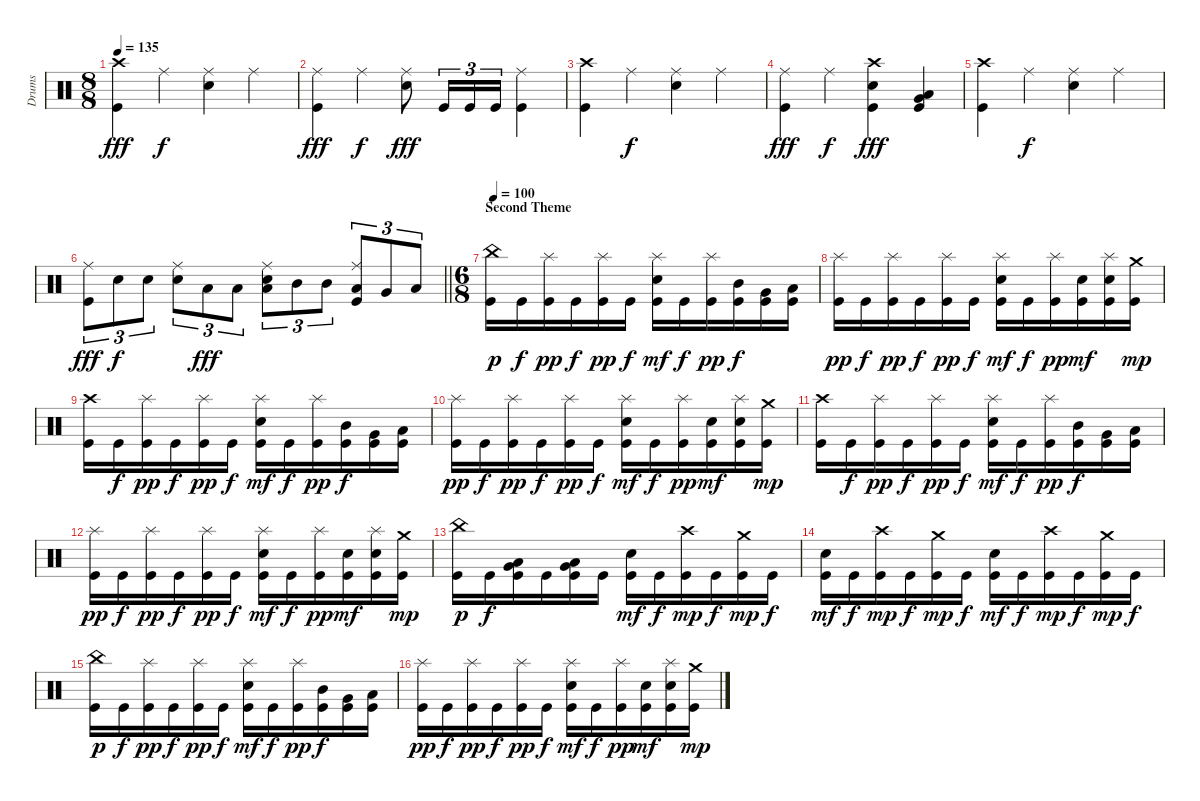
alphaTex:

\track ("Drums" "Drums") {instrument percussion}
\staff
\articulation defaults
\ts (8 8)
\tempo 135
\clef neutral
\ks c
("Crash high (hit)" "Kick (hit)").4{dy fff} "Ride (middle)".4{dy f} ("Ride (middle)" "Snare (hit) 2").4 "Ride (middle)".4 |
("Ride (middle)" "Kick (hit)").4{dy fff} "Ride (middle)".4{dy f} ("Ride (middle)" "Snare (hit) 2").8{dy fff} "Kick (hit)".16{tu (3 2)} "Kick (hit)".16{tu (3 2)} "Kick (hit)".16{tu (3 2)} ("Ride (middle)" "Kick (hit)").4 |
("Crash high (hit)" "Kick (hit)").4 "Ride (middle)".4{dy f} ("Ride (middle)" "Snare (hit) 2").4 "Ride (middle)".4 |
("Ride (middle)" "Kick (hit)").4{dy fff} "Ride (middle)".4{dy f} ("Crash high (hit)" "Snare (hit) 2" "Kick (hit)").4{dy fff} ("Very Low Tom (hit)" "Low Floor Tom (hit)" "Kick (hit)").4 |
("Crash high (hit)" "Kick (hit)").4 "Ride (middle)".4{dy f} ("Ride (middle)" "Snare (hit) 2").4 "Ride (middle)".4 |
\barLineRight lightlight
("Ride (middle)" "Kick (hit)").8{tu (3 2) dy fff} "Snare (hit) 2".8{tu (3 2) dy f} "Snare (hit) 2".8{tu (3 2)} ("Ride (middle)" "Snare (hit) 2").8{tu (3 2)} "Low Floor Tom (hit)".8{tu (3 2) dy fff} "Low Floor Tom (hit)".8{tu (3 2)} ("Ride (middle)" "Snare (hit) 2" "Low Floor Tom (hit)").8{tu (3 2)} "Mid Tom (hit)".8{tu (3 2)} "Mid Tom (hit)".8{tu (3 2)} ("Ride (middle)" "Low Tom (hit)" "Kick (hit)").8{tu (3 2)} "Very Low Tom (hit)".8{tu (3 2)} "Low Floor Tom (hit)".8{tu (3 2)} |
\ts (6 8)
\section ("" "Second Theme")
\tempo 100
("China (hit)" "Kick (hit)").16{dy p} "Kick (hit)".16{dy f} ("Splash (hit)" "Kick (hit)").16{dy pp} "Kick (hit)".16{dy f} ("Splash (hit)" "Kick (hit)").16{dy pp} "Kick (hit)".16{dy f} ("Splash (hit)" "Snare (hit) 2" "Kick (hit)").16{dy mf} "Kick (hit)".16{dy f} ("Splash (hit)" "Kick (hit)").16{dy pp} ("Mid Tom (hit)" "Kick (hit)").16{dy f} ("Very Low Tom (hit)" "Kick (hit)").16 ("Low Tom (hit)" "Kick (hit)").16 |
("Splash (hit)" "Kick (hit)").16{dy pp} "Kick (hit)".16{dy f} ("Splash (hit)" "Kick (hit)").16{dy pp} "Kick (hit)".16{dy f} ("Splash (hit)" "Kick (hit)").16{dy pp} "Kick (hit)".16{dy f} ("Splash (hit)" "Snare (hit) 2" "Kick (hit)").16{dy mf} "Kick (hit)".16{dy f} ("Splash (hit)" "Kick (hit)").16{dy pp} ("Snare (hit) 2" "Kick (hit)").16{dy mf} ("Splash (hit)" "Snare (hit) 2" "Kick (hit)").16 ("Crash medium (hit)" "Kick (hit)").16{dy mp} |
("Crash high (hit)" "Kick (hit)").16 "Kick (hit)".16{dy f} ("Splash (hit)" "Kick (hit)").16{dy pp} "Kick (hit)".16{dy f} ("Splash (hit)" "Kick (hit)").16{dy pp} "Kick (hit)".16{dy f} ("Splash (hit)" "Snare (hit) 2" "Kick (hit)").16{dy mf} "Kick (hit)".16{dy f} ("Splash (hit)" "Kick (hit)").16{dy pp} ("Mid Tom (hit)" "Kick (hit)").16{dy f} ("Very Low Tom (hit)" "Kick (hit)").16 ("Low Tom (hit)" "Kick (hit)").16 |
("Splash (hit)" "Kick (hit)").16{dy pp} "Kick (hit)".16{dy f} ("Splash (hit)" "Kick (hit)").16{dy pp} "Kick (hit)".16{dy f} ("Splash (hit)" "Kick (hit)").16{dy pp} "Kick (hit)".16{dy f} ("Splash (hit)" "Snare (hit) 2" "Kick (hit)").16{dy mf} "Kick (hit)".16{dy f} ("Splash (hit)" "Kick (hit)").16{dy pp} ("Snare (hit) 2" "Kick (hit)").16{dy mf} ("Splash (hit)" "Snare (hit) 2" "Kick (hit)").16 ("Crash medium (hit)" "Kick (hit)").16{dy mp} |
("Crash high (hit)" "Kick (hit)").16 "Kick (hit)".16{dy f} ("Splash (hit)" "Kick (hit)").16{dy pp} "Kick (hit)".16{dy f} ("Splash (hit)" "Kick (hit)").16{dy pp} "Kick (hit)".16{dy f} ("Splash (hit)" "Snare (hit) 2" "Kick (hit)").16{dy mf} "Kick (hit)".16{dy f} ("Splash (hit)" "Kick (hit)").16{dy pp} ("Mid Tom (hit)" "Kick (hit)").16{dy f} ("Very Low Tom (hit)" "Kick (hit)").16 ("Low Tom (hit)" "Kick (hit)").16 |
("Splash (hit)" "Kick (hit)").16{dy pp} "Kick (hit)".16{dy f} ("Splash (hit)" "Kick (hit)").16{dy pp} "Kick (hit)".16{dy f} ("Splash (hit)" "Kick (hit)").16{dy pp} "Kick (hit)".16{dy f} ("Splash (hit)" "Snare (hit) 2" "Kick (hit)").16{dy mf} "Kick (hit)".16{dy f} ("Splash (hit)" "Kick (hit)").16{dy pp} ("Snare (hit) 2" "Kick (hit)").16{dy mf} ("Splash (hit)" "Snare (hit) 2" "Kick (hit)").16 ("Crash medium (hit)" "Kick (hit)").16{dy mp} |
("China (hit)" "Kick (hit)").16{dy p} "Kick (hit)".16{dy f} ("Low Tom (hit)" "Very Low Tom (hit)" "Kick (hit)").16 "Kick (hit)".16 ("Very Low Tom (hit)" "Low Floor Tom (hit)" "Kick (hit)").16 "Kick (hit)".16 ("Snare (hit) 2" "Kick (hit)").16{dy mf} "Kick (hit)".16{dy f} ("Crash high (hit)" "Kick (hit)").16{dy mp} "Kick (hit)".16{dy f} ("Crash medium (hit)" "Kick (hit)").16{dy mp} "Kick (hit)".16{dy f} |
("Snare (hit) 2" "Kick (hit)").16{dy mf} "Kick (hit)".16{dy f} ("Crash high (hit)" "Kick (hit)").16{dy mp} "Kick (hit)".16{dy f} ("Crash medium (hit)" "Kick (hit)").16{dy mp} "Kick (hit)".16{dy f} ("Snare (hit) 2" "Kick (hit)").16{dy mf} "Kick (hit)".16{dy f} ("Crash high (hit)" "Kick (hit)").16{dy mp} "Kick (hit)".16{dy f} ("Crash medium (hit)" "Kick (hit)").16{dy mp} "Kick (hit)".16{dy f} |
("China (hit)" "Kick (hit)").16{dy p} "Kick (hit)".16{dy f} ("Splash (hit)" "Kick (hit)").16{dy pp} "Kick (hit)".16{dy f} ("Splash (hit)" "Kick (hit)").16{dy pp} "Kick (hit)".16{dy f} ("Splash (hit)" "Snare (hit) 2" "Kick (hit)").16{dy mf} "Kick (hit)".16{dy f} ("Splash (hit)" "Kick (hit)").16{dy pp} ("Mid Tom (hit)" "Kick (hit)").16{dy f} ("Very Low Tom (hit)" "Kick (hit)").16 ("Low Tom (hit)" "Kick (hit)").16 |
("Splash (hit)" "Kick (hit)").16{dy pp} "Kick (hit)".16{dy f} ("Splash (hit)" "Kick (hit)").16{dy pp} "Kick (hit)".16{dy f} ("Splash (hit)" "Kick (hit)").16{dy pp} "Kick (hit)".16{dy f} ("Splash (hit)" "Snare (hit) 2" "Kick (hit)").16{dy mf} "Kick (hit)".16{dy f} ("Splash (hit)" "Kick (hit)").16{dy pp} ("Snare (hit) 2" "Kick (hit)").16{dy mf} ("Splash (hit)" "Snare (hit) 2" "Kick (hit)").16 ("Crash medium (hit)" "Kick (hit)").16{dy mp}
